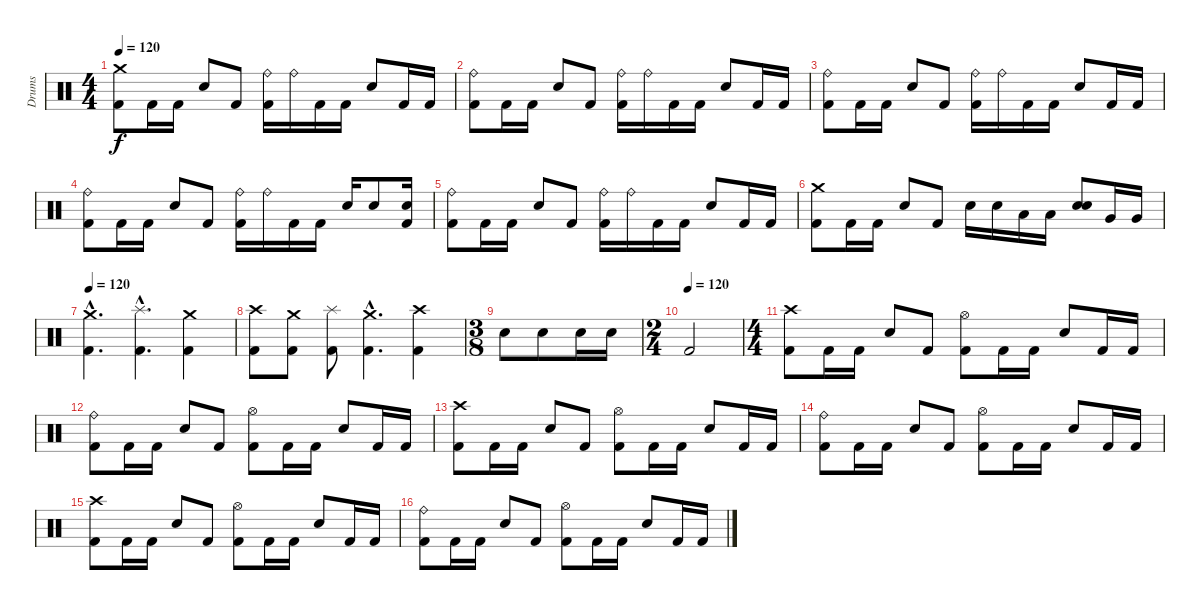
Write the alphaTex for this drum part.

\track ("Drums" "Drums") {instrument percussion}
\staff {score}
\articulation defaults
\ts (4 4)
\tempo 120
\clef neutral
\ks c
("Crash medium (hit)" "Kick (hit) 2").8{dy f} "Kick (hit) 2".16 "Kick (hit) 2".16 "Electric Snare (hit)".8 "Kick (hit) 2".8 ("Ride (bell)" "Kick (hit) 2").16 "Ride (bell)".16 "Kick (hit) 2".16 "Kick (hit) 2".16 "Electric Snare (hit)".8 "Kick (hit) 2".16 "Kick (hit) 2".16 |
("Ride (bell)" "Kick (hit) 2").8 "Kick (hit) 2".16 "Kick (hit) 2".16 "Electric Snare (hit)".8 "Kick (hit) 2".8 ("Ride (bell)" "Kick (hit) 2").16 "Ride (bell)".16 "Kick (hit) 2".16 "Kick (hit) 2".16 "Electric Snare (hit)".8 "Kick (hit) 2".16 "Kick (hit) 2".16 |
("Ride (bell)" "Kick (hit) 2").8 "Kick (hit) 2".16 "Kick (hit) 2".16 "Electric Snare (hit)".8 "Kick (hit) 2".8 ("Ride (bell)" "Kick (hit) 2").16 "Ride (bell)".16 "Kick (hit) 2".16 "Kick (hit) 2".16 "Electric Snare (hit)".8 "Kick (hit) 2".16 "Kick (hit) 2".16 |
("Ride (bell)" "Kick (hit) 2").8 "Kick (hit) 2".16 "Kick (hit) 2".16 "Electric Snare (hit)".8 "Kick (hit) 2".8 ("Ride (bell)" "Kick (hit) 2").16 "Ride (bell)".16 "Kick (hit) 2".16 "Kick (hit) 2".16 "Electric Snare (hit)".16 "Electric Snare (hit)".8 ("Electric Snare (hit)" "Kick (hit) 2").16 |
("Ride (bell)" "Kick (hit) 2").8 "Kick (hit) 2".16 "Kick (hit) 2".16 "Electric Snare (hit)".8 "Kick (hit) 2".8 ("Ride (bell)" "Kick (hit) 2").16 "Ride (bell)".16 "Kick (hit) 2".16 "Kick (hit) 2".16 "Electric Snare (hit)".8 "Kick (hit) 2".16 "Kick (hit) 2".16 |
("Crash medium (hit)" "Kick (hit) 2").8 "Kick (hit) 2".16 "Kick (hit) 2".16 "Electric Snare (hit)".8 "Kick (hit) 2".8 "Electric Snare (hit)".16 "Electric Snare (hit)".16 "Low Tom (hit)".16 "Low Tom (hit)".16 ("Electric Snare (hit)" "Electric Snare (hit)").8{bu 240} "Very Low Tom (hit)".16 "Very Low Tom (hit)".16 |
\tempo 120
("Crash medium (hit)"{hac} "Kick (hit) 2"{hac}).4{d} ("Splash (hit)"{hac} "Kick (hit) 2"{hac}).4{d} ("Crash medium (hit)" "Kick (hit) 2").4 |
("Crash high (hit)" "Kick (hit) 2").8 ("Crash medium (hit)" "Kick (hit) 2").8 ("Splash (hit)" "Kick (hit) 2").8 ("Crash medium (hit)"{hac} "Kick (hit) 2"{hac}).4{d} ("Crash high (hit)" "Kick (hit) 2").4 |
\ts (3 8)
"Electric Snare (hit)".8 "Electric Snare (hit)".8 "Electric Snare (hit)".16 "Electric Snare (hit)".16 |
\ts (2 4)
\tempo (120)
"Kick (hit) 2".2 |
\ts (4 4)
("Crash high (hit)" "Kick (hit) 2").8 "Kick (hit) 2".16 "Kick (hit) 2".16 "Electric Snare (hit)".8 "Kick (hit) 2".8 ("Hi-Hat (open)" "Kick (hit) 2").8 "Kick (hit) 2".16 "Kick (hit) 2".16 "Electric Snare (hit)".8 "Kick (hit) 2".16 "Kick (hit) 2".16 |
("Ride (bell)" "Kick (hit) 2").8 "Kick (hit) 2".16 "Kick (hit) 2".16 "Electric Snare (hit)".8 "Kick (hit) 2".8 ("Hi-Hat (open)" "Kick (hit) 2").8 "Kick (hit) 2".16 "Kick (hit) 2".16 "Electric Snare (hit)".8 "Kick (hit) 2".16 "Kick (hit) 2".16 |
("Crash high (hit)" "Kick (hit) 2").8 "Kick (hit) 2".16 "Kick (hit) 2".16 "Electric Snare (hit)".8 "Kick (hit) 2".8 ("Hi-Hat (open)" "Kick (hit) 2").8 "Kick (hit) 2".16 "Kick (hit) 2".16 "Electric Snare (hit)".8 "Kick (hit) 2".16 "Kick (hit) 2".16 |
("Ride (bell)" "Kick (hit) 2").8 "Kick (hit) 2".16 "Kick (hit) 2".16 "Electric Snare (hit)".8 "Kick (hit) 2".8 ("Hi-Hat (open)" "Kick (hit) 2").8 "Kick (hit) 2".16 "Kick (hit) 2".16 "Electric Snare (hit)".8 "Kick (hit) 2".16 "Kick (hit) 2".16 |
("Crash high (hit)" "Kick (hit) 2").8 "Kick (hit) 2".16 "Kick (hit) 2".16 "Electric Snare (hit)".8 "Kick (hit) 2".8 ("Hi-Hat (open)" "Kick (hit) 2").8 "Kick (hit) 2".16 "Kick (hit) 2".16 "Electric Snare (hit)".8 "Kick (hit) 2".16 "Kick (hit) 2".16 |
("Ride (bell)" "Kick (hit) 2").8 "Kick (hit) 2".16 "Kick (hit) 2".16 "Electric Snare (hit)".8 "Kick (hit) 2".8 ("Hi-Hat (open)" "Kick (hit) 2").8 "Kick (hit) 2".16 "Kick (hit) 2".16 "Electric Snare (hit)".8 "Kick (hit) 2".16 "Kick (hit) 2".16
